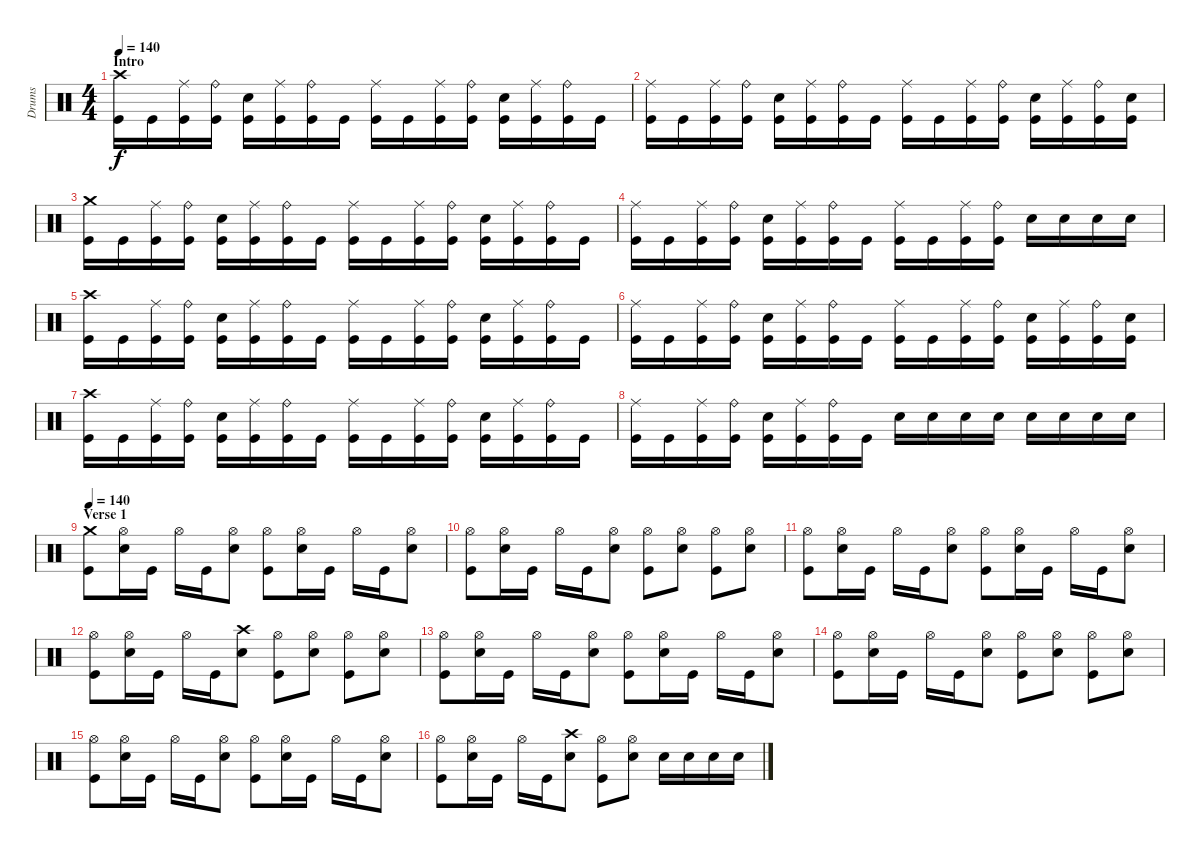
\track ("Drums" "Drums") {instrument percussion}
\staff {score}
\articulation defaults
\ts (4 4)
\section ("" "Intro")
\tempo 140
\tempo 130
\tempo 140
\clef neutral
\ks c
("Crash high (hit)" "Kick (hit)").16{dy f} "Kick (hit)".16 ("Ride (middle)" "Kick (hit)").16 ("Ride (bell)" "Kick (hit)").16 ("Snare (hit) 2" "Kick (hit)").16 ("Ride (middle)" "Kick (hit)").16 ("Ride (bell)" "Kick (hit)").16 "Kick (hit)".16 ("Ride (middle)" "Kick (hit)").16 "Kick (hit)".16 ("Ride (middle)" "Kick (hit)").16 ("Ride (bell)" "Kick (hit)").16 ("Snare (hit) 2" "Kick (hit)").16 ("Ride (middle)" "Kick (hit)").16 ("Ride (bell)" "Kick (hit)").16 "Kick (hit)".16 |
("Ride (middle)" "Kick (hit)").16 "Kick (hit)".16 ("Ride (middle)" "Kick (hit)").16 ("Ride (bell)" "Kick (hit)").16 ("Snare (hit) 2" "Kick (hit)").16 ("Ride (middle)" "Kick (hit)").16 ("Ride (bell)" "Kick (hit)").16 "Kick (hit)".16 ("Ride (middle)" "Kick (hit)").16 "Kick (hit)".16 ("Ride (middle)" "Kick (hit)").16 ("Ride (bell)" "Kick (hit)").16 ("Snare (hit) 2" "Kick (hit)").16 ("Ride (middle)" "Kick (hit)").16 ("Ride (bell)" "Kick (hit)").16 ("Snare (hit) 2" "Kick (hit)").16 |
("Crash medium (hit)" "Kick (hit)").16 "Kick (hit)".16 ("Ride (middle)" "Kick (hit)").16 ("Ride (bell)" "Kick (hit)").16 ("Snare (hit) 2" "Kick (hit)").16 ("Ride (middle)" "Kick (hit)").16 ("Ride (bell)" "Kick (hit)").16 "Kick (hit)".16 ("Ride (middle)" "Kick (hit)").16 "Kick (hit)".16 ("Ride (middle)" "Kick (hit)").16 ("Ride (bell)" "Kick (hit)").16 ("Snare (hit) 2" "Kick (hit)").16 ("Ride (middle)" "Kick (hit)").16 ("Ride (bell)" "Kick (hit)").16 "Kick (hit)".16 |
("Ride (middle)" "Kick (hit)").16 "Kick (hit)".16 ("Ride (middle)" "Kick (hit)").16 ("Ride (bell)" "Kick (hit)").16 ("Snare (hit) 2" "Kick (hit)").16 ("Ride (middle)" "Kick (hit)").16 ("Ride (bell)" "Kick (hit)").16 "Kick (hit)".16 ("Ride (middle)" "Kick (hit)").16 "Kick (hit)".16 ("Ride (middle)" "Kick (hit)").16 ("Ride (bell)" "Kick (hit)").16 "Snare (hit) 2".16 "Snare (hit) 2".16 "Snare (hit) 2".16 "Snare (hit) 2".16 |
("Crash high (hit)" "Kick (hit)").16 "Kick (hit)".16 ("Ride (middle)" "Kick (hit)").16 ("Ride (bell)" "Kick (hit)").16 ("Snare (hit) 2" "Kick (hit)").16 ("Ride (middle)" "Kick (hit)").16 ("Ride (bell)" "Kick (hit)").16 "Kick (hit)".16 ("Ride (middle)" "Kick (hit)").16 "Kick (hit)".16 ("Ride (middle)" "Kick (hit)").16 ("Ride (bell)" "Kick (hit)").16 ("Snare (hit) 2" "Kick (hit)").16 ("Ride (middle)" "Kick (hit)").16 ("Ride (bell)" "Kick (hit)").16 "Kick (hit)".16 |
("Ride (middle)" "Kick (hit)").16 "Kick (hit)".16 ("Ride (middle)" "Kick (hit)").16 ("Ride (bell)" "Kick (hit)").16 ("Snare (hit) 2" "Kick (hit)").16 ("Ride (middle)" "Kick (hit)").16 ("Ride (bell)" "Kick (hit)").16 "Kick (hit)".16 ("Ride (middle)" "Kick (hit)").16 "Kick (hit)".16 ("Ride (middle)" "Kick (hit)").16 ("Ride (bell)" "Kick (hit)").16 ("Snare (hit) 2" "Kick (hit)").16 ("Ride (middle)" "Kick (hit)").16 ("Ride (bell)" "Kick (hit)").16 ("Snare (hit) 2" "Kick (hit)").16 |
("Crash high (hit)" "Kick (hit)").16 "Kick (hit)".16 ("Ride (middle)" "Kick (hit)").16 ("Ride (bell)" "Kick (hit)").16 ("Snare (hit) 2" "Kick (hit)").16 ("Ride (middle)" "Kick (hit)").16 ("Ride (bell)" "Kick (hit)").16 "Kick (hit)".16 ("Ride (middle)" "Kick (hit)").16 "Kick (hit)".16 ("Ride (middle)" "Kick (hit)").16 ("Ride (bell)" "Kick (hit)").16 ("Snare (hit) 2" "Kick (hit)").16 ("Ride (middle)" "Kick (hit)").16 ("Ride (bell)" "Kick (hit)").16 "Kick (hit)".16 |
("Ride (middle)" "Kick (hit)").16 "Kick (hit)".16 ("Ride (middle)" "Kick (hit)").16 ("Ride (bell)" "Kick (hit)").16 ("Snare (hit) 2" "Kick (hit)").16 ("Ride (middle)" "Kick (hit)").16 ("Ride (bell)" "Kick (hit)").16 "Kick (hit)".16 "Snare (hit) 2".16{volume 5} "Snare (hit) 2".16{volume 6} "Snare (hit) 2".16{volume 7} "Snare (hit) 2".16{volume 8} "Snare (hit) 2".16{volume 9} "Snare (hit) 2".16{volume 10} "Snare (hit) 2".16{volume 11} "Snare (hit) 2".16{volume 12} |
\section ("" "Verse 1")
\tempo 140
("Crash medium (hit)" "Kick (hit)").8 ("Hi-Hat (open)" "Snare (hit) 2").16 "Kick (hit)".16 "Hi-Hat (open)".16 "Kick (hit)".16 ("Hi-Hat (open)" "Snare (hit) 2").8 ("Hi-Hat (open)" "Kick (hit)").8 ("Hi-Hat (open)" "Snare (hit) 2").16 "Kick (hit)".16 "Hi-Hat (open)".16 "Kick (hit)".16 ("Hi-Hat (open)" "Snare (hit) 2").8 |
("Hi-Hat (open)" "Kick (hit)").8 ("Hi-Hat (open)" "Snare (hit) 2").16 "Kick (hit)".16 "Hi-Hat (open)".16 "Kick (hit)".16 ("Hi-Hat (open)" "Snare (hit) 2").8 ("Hi-Hat (open)" "Kick (hit)").8 ("Hi-Hat (open)" "Snare (hit) 2").8 ("Hi-Hat (open)" "Kick (hit)").8 ("Hi-Hat (open)" "Snare (hit) 2").8 |
("Hi-Hat (open)" "Kick (hit)").8 ("Hi-Hat (open)" "Snare (hit) 2").16 "Kick (hit)".16 "Hi-Hat (open)".16 "Kick (hit)".16 ("Hi-Hat (open)" "Snare (hit) 2").8 ("Hi-Hat (open)" "Kick (hit)").8 ("Hi-Hat (open)" "Snare (hit) 2").16 "Kick (hit)".16 "Hi-Hat (open)".16 "Kick (hit)".16 ("Hi-Hat (open)" "Snare (hit) 2").8 |
("Hi-Hat (open)" "Kick (hit)").8 ("Hi-Hat (open)" "Snare (hit) 2").16 "Kick (hit)".16 "Hi-Hat (open)".16 "Kick (hit)".16 ("Crash high (hit)" "Snare (hit) 2").8 ("Hi-Hat (open)" "Kick (hit)").8 ("Hi-Hat (open)" "Snare (hit) 2").8 ("Hi-Hat (open)" "Kick (hit)").8 ("Hi-Hat (open)" "Snare (hit) 2").8 |
("Hi-Hat (open)" "Kick (hit)").8 ("Hi-Hat (open)" "Snare (hit) 2").16 "Kick (hit)".16 "Hi-Hat (open)".16 "Kick (hit)".16 ("Hi-Hat (open)" "Snare (hit) 2").8 ("Hi-Hat (open)" "Kick (hit)").8 ("Hi-Hat (open)" "Snare (hit) 2").16 "Kick (hit)".16 "Hi-Hat (open)".16 "Kick (hit)".16 ("Hi-Hat (open)" "Snare (hit) 2").8 |
("Hi-Hat (open)" "Kick (hit)").8 ("Hi-Hat (open)" "Snare (hit) 2").16 "Kick (hit)".16 "Hi-Hat (open)".16 "Kick (hit)".16 ("Hi-Hat (open)" "Snare (hit) 2").8 ("Hi-Hat (open)" "Kick (hit)").8 ("Hi-Hat (open)" "Snare (hit) 2").8 ("Hi-Hat (open)" "Kick (hit)").8 ("Hi-Hat (open)" "Snare (hit) 2").8 |
("Hi-Hat (open)" "Kick (hit)").8 ("Hi-Hat (open)" "Snare (hit) 2").16 "Kick (hit)".16 "Hi-Hat (open)".16 "Kick (hit)".16 ("Hi-Hat (open)" "Snare (hit) 2").8 ("Hi-Hat (open)" "Kick (hit)").8 ("Hi-Hat (open)" "Snare (hit) 2").16 "Kick (hit)".16 "Hi-Hat (open)".16 "Kick (hit)".16 ("Hi-Hat (open)" "Snare (hit) 2").8 |
("Hi-Hat (open)" "Kick (hit)").8 ("Hi-Hat (open)" "Snare (hit) 2").16 "Kick (hit)".16 "Hi-Hat (open)".16 "Kick (hit)".16 ("Crash high (hit)" "Snare (hit) 2").8 ("Hi-Hat (open)" "Kick (hit)").8 ("Hi-Hat (open)" "Snare (hit) 2").8 "Snare (hit) 2".16 "Snare (hit) 2".16 "Snare (hit) 2".16 "Snare (hit) 2".16
